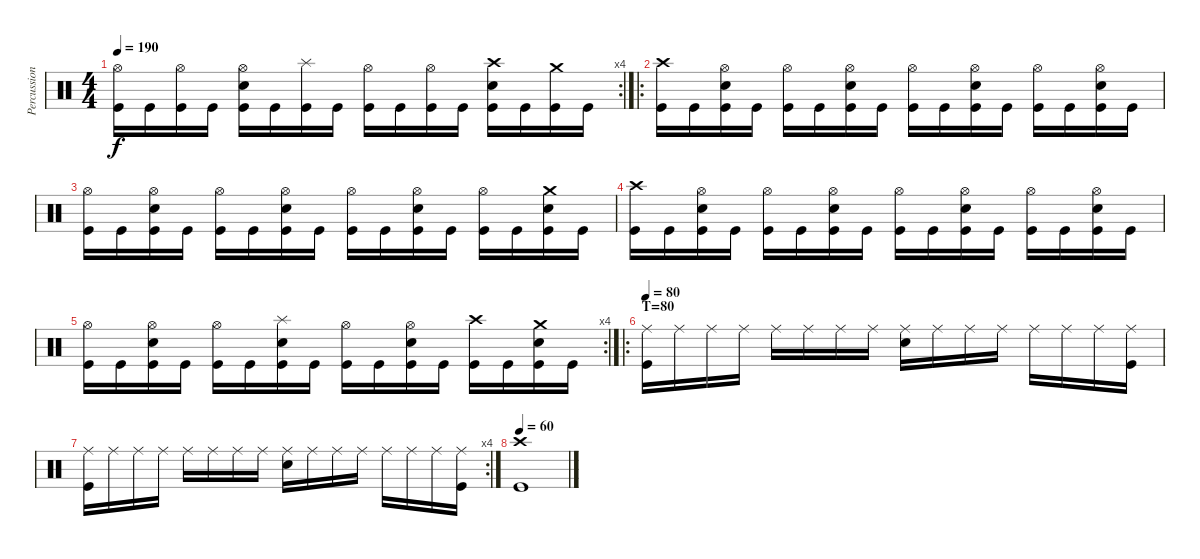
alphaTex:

\track ("Percussion" "Percussion") {instrument percussion}
\staff {score}
\articulation defaults
\rc 4
\ts (4 4)
\tempo 190
\clef neutral
\ks c
("Hi-Hat (open)" "Kick (hit)").16{dy f} "Kick (hit)".16 ("Hi-Hat (open)" "Kick (hit)").16 "Kick (hit)".16 ("Hi-Hat (open)" "Electric Snare (hit)" "Kick (hit)").16 "Kick (hit)".16 ("Splash (hit)" "Kick (hit)").16 "Kick (hit)".16 ("Hi-Hat (open)" "Kick (hit)").16 "Kick (hit)".16 ("Hi-Hat (open)" "Kick (hit)").16 "Kick (hit)".16 ("Crash high (hit)" "Electric Snare (hit)" "Kick (hit)").16 "Kick (hit)".16 ("Crash medium (hit)" "Kick (hit)").16 "Kick (hit)".16 |
\ro
("Crash high (hit)" "Kick (hit)").16 "Kick (hit)".16 ("Hi-Hat (open)" "Electric Snare (hit)" "Kick (hit)").16 "Kick (hit)".16 ("Hi-Hat (open)" "Kick (hit)").16 "Kick (hit)".16 ("Hi-Hat (open)" "Electric Snare (hit)" "Kick (hit)").16 "Kick (hit)".16 ("Hi-Hat (open)" "Kick (hit)").16 "Kick (hit)".16 ("Hi-Hat (open)" "Electric Snare (hit)" "Kick (hit)").16 "Kick (hit)".16 ("Hi-Hat (open)" "Kick (hit)").16 "Kick (hit)".16 ("Hi-Hat (open)" "Electric Snare (hit)" "Kick (hit)").16 "Kick (hit)".16 |
("Hi-Hat (open)" "Kick (hit)").16 "Kick (hit)".16 ("Hi-Hat (open)" "Electric Snare (hit)" "Kick (hit)").16 "Kick (hit)".16 ("Hi-Hat (open)" "Kick (hit)").16 "Kick (hit)".16 ("Hi-Hat (open)" "Electric Snare (hit)" "Kick (hit)").16 "Kick (hit)".16 ("Hi-Hat (open)" "Kick (hit)").16 "Kick (hit)".16 ("Hi-Hat (open)" "Electric Snare (hit)" "Kick (hit)").16 "Kick (hit)".16 ("Hi-Hat (open)" "Kick (hit)").16 "Kick (hit)".16 ("Crash medium (hit)" "Electric Snare (hit)" "Kick (hit)").16 "Kick (hit)".16 |
("Crash high (hit)" "Kick (hit)").16 "Kick (hit)".16 ("Hi-Hat (open)" "Electric Snare (hit)" "Kick (hit)").16 "Kick (hit)".16 ("Hi-Hat (open)" "Kick (hit)").16 "Kick (hit)".16 ("Hi-Hat (open)" "Electric Snare (hit)" "Kick (hit)").16 "Kick (hit)".16 ("Hi-Hat (open)" "Kick (hit)").16 "Kick (hit)".16 ("Hi-Hat (open)" "Electric Snare (hit)" "Kick (hit)").16 "Kick (hit)".16 ("Hi-Hat (open)" "Kick (hit)").16 "Kick (hit)".16 ("Hi-Hat (open)" "Electric Snare (hit)" "Kick (hit)").16 "Kick (hit)".16 |
\rc 4
("Hi-Hat (open)" "Kick (hit)").16 "Kick (hit)".16 ("Hi-Hat (open)" "Electric Snare (hit)" "Kick (hit)").16 "Kick (hit)".16 ("Hi-Hat (open)" "Kick (hit)").16 "Kick (hit)".16 ("Splash (hit)" "Electric Snare (hit)" "Kick (hit)").16 "Kick (hit)".16 ("Hi-Hat (open)" "Kick (hit)").16 "Kick (hit)".16 ("Hi-Hat (open)" "Electric Snare (hit)" "Kick (hit)").16 "Kick (hit)".16 ("Crash high (hit)" "Kick (hit)").16 "Kick (hit)".16 ("Crash medium (hit)" "Electric Snare (hit)" "Kick (hit)").16 "Kick (hit)".16 |
\ro
\section ("" "T=80")
\tempo 80
("Ride (middle)" "Kick (hit)").16 "Ride (middle)".16 "Ride (middle)".16 "Ride (middle)".16 "Ride (middle)".16 "Ride (middle)".16 "Ride (middle)".16 "Ride (middle)".16 ("Ride (middle)" "Electric Snare (hit)").16 "Ride (middle)".16 "Ride (middle)".16 "Ride (middle)".16 "Ride (middle)".16 "Ride (middle)".16 "Ride (middle)".16 ("Ride (middle)" "Kick (hit)").16 |
\rc 4
("Ride (middle)" "Kick (hit)").16 "Ride (middle)".16 "Ride (middle)".16 "Ride (middle)".16 "Ride (middle)".16 "Ride (middle)".16 "Ride (middle)".16 "Ride (middle)".16 ("Ride (middle)" "Electric Snare (hit)").16 "Ride (middle)".16 "Ride (middle)".16 "Ride (middle)".16 "Ride (middle)".16 "Ride (middle)".16 "Ride (middle)".16 ("Ride (middle)" "Kick (hit)").16 |
\tempo 60
("Crash high (hit)" "Kick (hit)").1
